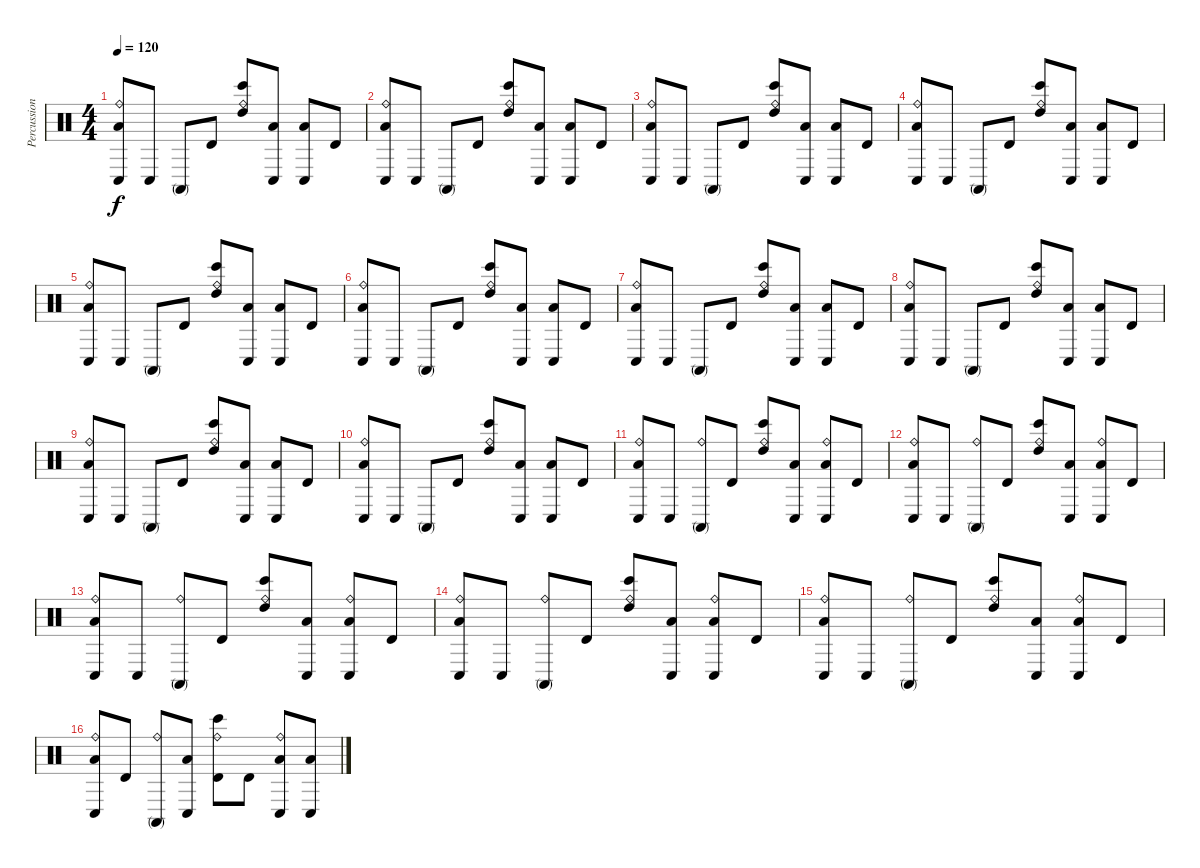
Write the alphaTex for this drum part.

\track ("Percussion" "Percussion") {instrument percussion}
\staff {score}
\articulation defaults
\ts (4 4)
\tempo 120
\clef neutral
\ks c
("Low Tom (hit)" "Conga low (hit)" "Ride (bell)").8{dy f} "Conga low (hit)".8 "Conga high (mute)".8 "Timbale high (hit)".8 ("High Tom (hit)" "Bongo High (hit)" "Ride (bell)").8 ("Low Tom (hit)" "Conga low (hit)").8 ("Low Tom (hit)" "Conga low (hit)").8 "Timbale high (hit)".8 |
("Low Tom (hit)" "Conga low (hit)" "Ride (bell)").8 "Conga low (hit)".8 "Conga high (mute)".8 "Timbale high (hit)".8 ("High Tom (hit)" "Bongo High (hit)" "Ride (bell)").8 ("Low Tom (hit)" "Conga low (hit)").8 ("Low Tom (hit)" "Conga low (hit)").8 "Timbale high (hit)".8 |
("Low Tom (hit)" "Conga low (hit)" "Ride (bell)").8 "Conga low (hit)".8 "Conga high (mute)".8 "Timbale high (hit)".8 ("High Tom (hit)" "Bongo High (hit)" "Ride (bell)").8 ("Low Tom (hit)" "Conga low (hit)").8 ("Low Tom (hit)" "Conga low (hit)").8 "Timbale high (hit)".8 |
("Low Tom (hit)" "Conga low (hit)" "Ride (bell)").8 "Conga low (hit)".8 "Conga high (mute)".8 "Timbale high (hit)".8 ("High Tom (hit)" "Bongo High (hit)" "Ride (bell)").8 ("Low Tom (hit)" "Conga low (hit)").8 ("Low Tom (hit)" "Conga low (hit)").8 "Timbale high (hit)".8 |
("Low Tom (hit)" "Conga low (hit)" "Ride (bell)").8 "Conga low (hit)".8 "Conga high (mute)".8 "Timbale high (hit)".8 ("High Tom (hit)" "Bongo High (hit)" "Ride (bell)").8 ("Low Tom (hit)" "Conga low (hit)").8 ("Low Tom (hit)" "Conga low (hit)").8 "Timbale high (hit)".8 |
("Low Tom (hit)" "Conga low (hit)" "Ride (bell)").8 "Conga low (hit)".8 "Conga high (mute)".8 "Timbale high (hit)".8 ("High Tom (hit)" "Bongo High (hit)" "Ride (bell)").8 ("Low Tom (hit)" "Conga low (hit)").8 ("Low Tom (hit)" "Conga low (hit)").8 "Timbale high (hit)".8 |
("Low Tom (hit)" "Conga low (hit)" "Ride (bell)").8 "Conga low (hit)".8 "Conga high (mute)".8 "Timbale high (hit)".8 ("High Tom (hit)" "Bongo High (hit)" "Ride (bell)").8 ("Low Tom (hit)" "Conga low (hit)").8 ("Low Tom (hit)" "Conga low (hit)").8 "Timbale high (hit)".8 |
("Low Tom (hit)" "Conga low (hit)" "Ride (bell)").8 "Conga low (hit)".8 "Conga high (mute)".8 "Timbale high (hit)".8 ("High Tom (hit)" "Bongo High (hit)" "Ride (bell)").8 ("Low Tom (hit)" "Conga low (hit)").8 ("Low Tom (hit)" "Conga low (hit)").8 "Timbale high (hit)".8 |
("Low Tom (hit)" "Conga low (hit)" "Ride (bell)").8 "Conga low (hit)".8 "Conga high (mute)".8 "Timbale high (hit)".8 ("High Tom (hit)" "Bongo High (hit)" "Ride (bell)").8 ("Low Tom (hit)" "Conga low (hit)").8 ("Low Tom (hit)" "Conga low (hit)").8 "Timbale high (hit)".8 |
("Low Tom (hit)" "Conga low (hit)" "Ride (bell)").8 "Conga low (hit)".8 "Conga high (mute)".8 "Timbale high (hit)".8 ("High Tom (hit)" "Bongo High (hit)" "Ride (bell)").8 ("Low Tom (hit)" "Conga low (hit)").8 ("Low Tom (hit)" "Conga low (hit)").8 "Timbale high (hit)".8 |
("Low Tom (hit)" "Conga low (hit)" "Ride (bell)").8 "Conga low (hit)".8 ("Conga high (mute)" "Ride (bell)").8 "Timbale high (hit)".8 ("High Tom (hit)" "Bongo High (hit)" "Ride (bell)").8 ("Low Tom (hit)" "Conga low (hit)").8 ("Low Tom (hit)" "Conga low (hit)" "Ride (bell)").8 "Timbale high (hit)".8 |
("Low Tom (hit)" "Conga low (hit)" "Ride (bell)").8 "Conga low (hit)".8 ("Conga high (mute)" "Ride (bell)").8 "Timbale high (hit)".8 ("High Tom (hit)" "Bongo High (hit)" "Ride (bell)").8 ("Low Tom (hit)" "Conga low (hit)").8 ("Low Tom (hit)" "Conga low (hit)" "Ride (bell)").8 "Timbale high (hit)".8 |
("Low Tom (hit)" "Conga low (hit)" "Ride (bell)").8 "Conga low (hit)".8 ("Conga high (mute)" "Ride (bell)").8 "Timbale high (hit)".8 ("High Tom (hit)" "Bongo High (hit)" "Ride (bell)").8 ("Low Tom (hit)" "Conga low (hit)").8 ("Low Tom (hit)" "Conga low (hit)" "Ride (bell)").8 "Timbale high (hit)".8 |
("Low Tom (hit)" "Conga low (hit)" "Ride (bell)").8 "Conga low (hit)".8 ("Conga high (mute)" "Ride (bell)").8 "Timbale high (hit)".8 ("High Tom (hit)" "Bongo High (hit)" "Ride (bell)").8 ("Low Tom (hit)" "Conga low (hit)").8 ("Low Tom (hit)" "Conga low (hit)" "Ride (bell)").8 "Timbale high (hit)".8 |
("Low Tom (hit)" "Conga low (hit)" "Ride (bell)").8 "Conga low (hit)".8 ("Conga high (mute)" "Ride (bell)").8 "Timbale high (hit)".8 ("High Tom (hit)" "Bongo High (hit)" "Ride (bell)").8 ("Low Tom (hit)" "Conga low (hit)").8 ("Low Tom (hit)" "Conga low (hit)" "Ride (bell)").8 "Timbale high (hit)".8 |
("Low Tom (hit)" "Conga low (hit)" "Ride (bell)").8 "Timbale high (hit)".8 ("Conga high (mute)" "Ride (bell)").8 ("Low Tom (hit)" "Conga low (hit)").8 ("Timbale high (hit)" "Bongo High (hit)" "Ride (bell)").8 "Timbale high (hit)".8 ("Low Tom (hit)" "Conga low (hit)" "Ride (bell)").8 ("Low Tom (hit)" "Conga low (hit)").8
